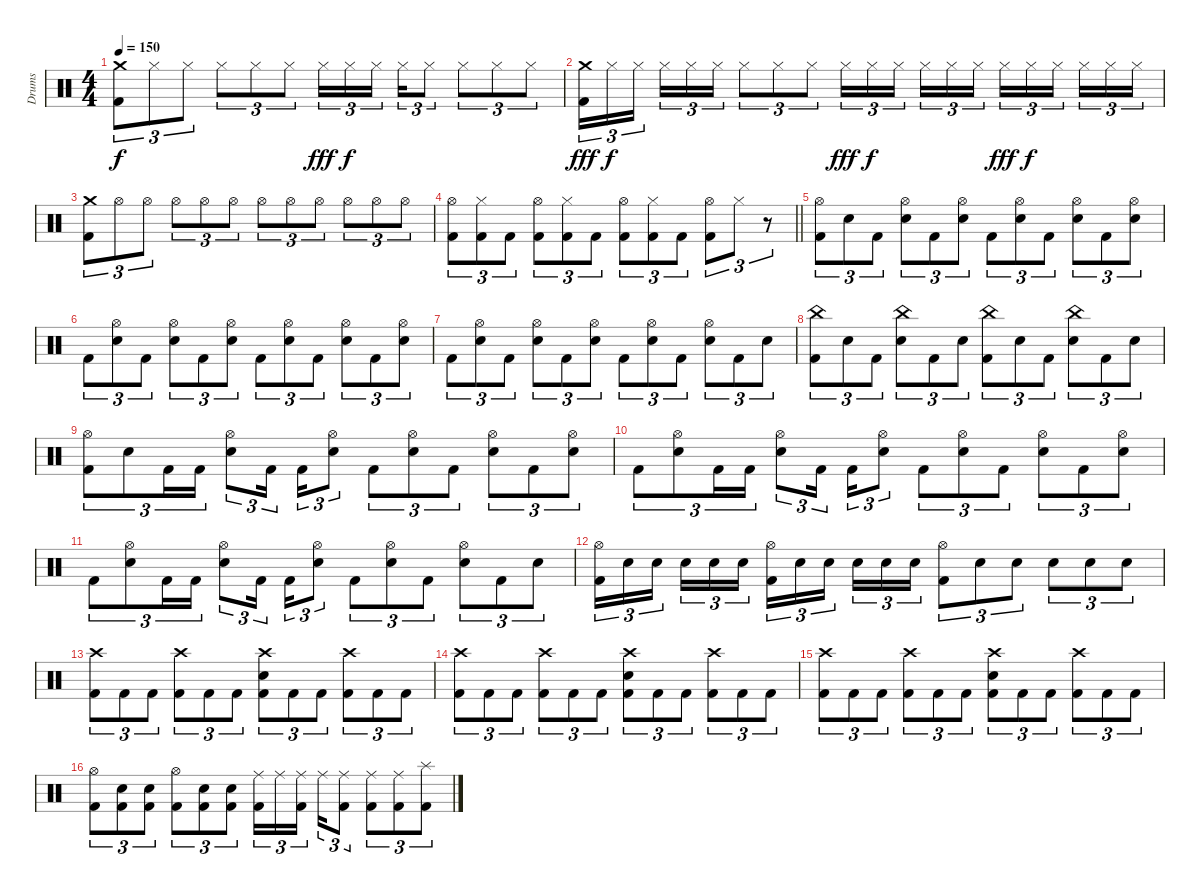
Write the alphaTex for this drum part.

\track ("Drums" "Drums") {instrument percussion}
\staff {score}
\articulation defaults
\ts (4 4)
\tempo 150
\clef neutral
\ks c
("Crash medium (hit)" "Kick (hit) 2").8{tu (3 2) dy f} "Hi-Hat (closed)".8{tu (3 2)} "Hi-Hat (closed)".8{tu (3 2)} "Hi-Hat (closed)".8{tu (3 2)} "Hi-Hat (closed)".8{tu (3 2)} "Hi-Hat (closed)".8{tu (3 2)} "Hi-Hat (closed)".16{tu (3 2) dy fff} "Hi-Hat (closed)".16{tu (3 2) dy f} "Hi-Hat (closed)".16{tu (3 2) beam splitsecondary} "Hi-Hat (closed)".16{tu (3 2)} "Hi-Hat (closed)".8{tu (3 2)} "Hi-Hat (closed)".8{tu (3 2)} "Hi-Hat (closed)".8{tu (3 2)} "Hi-Hat (closed)".8{tu (3 2)} |
("Crash medium (hit)" "Kick (hit) 2").16{tu (3 2) dy fff} "Hi-Hat (closed)".16{tu (3 2) dy f} "Hi-Hat (closed)".16{tu (3 2) beam splitsecondary} "Hi-Hat (closed)".16{tu (3 2)} "Hi-Hat (closed)".16{tu (3 2)} "Hi-Hat (closed)".16{tu (3 2)} "Hi-Hat (closed)".8{tu (3 2)} "Hi-Hat (closed)".8{tu (3 2)} "Hi-Hat (closed)".8{tu (3 2)} "Hi-Hat (closed)".16{tu (3 2) dy fff} "Hi-Hat (closed)".16{tu (3 2) dy f} "Hi-Hat (closed)".16{tu (3 2) beam splitsecondary} "Hi-Hat (closed)".16{tu (3 2)} "Hi-Hat (closed)".16{tu (3 2)} "Hi-Hat (closed)".16{tu (3 2)} "Hi-Hat (closed)".16{tu (3 2) dy fff} "Hi-Hat (closed)".16{tu (3 2) dy f} "Hi-Hat (closed)".16{tu (3 2) beam splitsecondary} "Hi-Hat (closed)".16{tu (3 2)} "Hi-Hat (closed)".16{tu (3 2)} "Hi-Hat (closed)".16{tu (3 2)} |
("Crash medium (hit)" "Kick (hit) 2").8{tu (3 2)} "Hi-Hat (open)".8{tu (3 2)} "Hi-Hat (open)".8{tu (3 2)} "Hi-Hat (open)".8{tu (3 2)} "Hi-Hat (open)".8{tu (3 2)} "Hi-Hat (open)".8{tu (3 2)} "Hi-Hat (open)".8{tu (3 2)} "Hi-Hat (open)".8{tu (3 2)} "Hi-Hat (open)".8{tu (3 2)} "Hi-Hat (open)".8{tu (3 2)} "Hi-Hat (open)".8{tu (3 2)} "Hi-Hat (open)".8{tu (3 2)} |
\barLineRight lightlight
("Hi-Hat (open)" "Kick (hit) 2").8{tu (3 2)} ("Hi-Hat (closed)" "Kick (hit) 2").8{tu (3 2)} "Kick (hit) 2".8{tu (3 2)} ("Hi-Hat (open)" "Kick (hit) 2").8{tu (3 2)} ("Hi-Hat (closed)" "Kick (hit) 2").8{tu (3 2)} "Kick (hit) 2".8{tu (3 2)} ("Hi-Hat (open)" "Kick (hit) 2").8{tu (3 2)} ("Hi-Hat (closed)" "Kick (hit) 2").8{tu (3 2)} "Kick (hit) 2".8{tu (3 2)} ("Hi-Hat (open)" "Kick (hit) 2").8{tu (3 2)} "Hi-Hat (closed)".8{tu (3 2)} r.8{tu (3 2)} |
("Hi-Hat (open)" "Kick (hit) 2").8{tu (3 2)} "Electric Snare (hit)".8{tu (3 2)} "Kick (hit) 2".8{tu (3 2)} ("Hi-Hat (open)" "Electric Snare (hit)").8{tu (3 2)} "Kick (hit) 2".8{tu (3 2)} ("Hi-Hat (open)" "Electric Snare (hit)").8{tu (3 2)} "Kick (hit) 2".8{tu (3 2)} ("Hi-Hat (open)" "Electric Snare (hit)").8{tu (3 2)} "Kick (hit) 2".8{tu (3 2)} ("Hi-Hat (open)" "Electric Snare (hit)").8{tu (3 2)} "Kick (hit) 2".8{tu (3 2)} ("Hi-Hat (open)" "Electric Snare (hit)").8{tu (3 2)} |
"Kick (hit) 2".8{tu (3 2)} ("Hi-Hat (open)" "Electric Snare (hit)").8{tu (3 2)} "Kick (hit) 2".8{tu (3 2)} ("Hi-Hat (open)" "Electric Snare (hit)").8{tu (3 2)} "Kick (hit) 2".8{tu (3 2)} ("Hi-Hat (open)" "Electric Snare (hit)").8{tu (3 2)} "Kick (hit) 2".8{tu (3 2)} ("Hi-Hat (open)" "Electric Snare (hit)").8{tu (3 2)} "Kick (hit) 2".8{tu (3 2)} ("Hi-Hat (open)" "Electric Snare (hit)").8{tu (3 2)} "Kick (hit) 2".8{tu (3 2)} ("Hi-Hat (open)" "Electric Snare (hit)").8{tu (3 2)} |
"Kick (hit) 2".8{tu (3 2)} ("Hi-Hat (open)" "Electric Snare (hit)").8{tu (3 2)} "Kick (hit) 2".8{tu (3 2)} ("Hi-Hat (open)" "Electric Snare (hit)").8{tu (3 2)} "Kick (hit) 2".8{tu (3 2)} ("Hi-Hat (open)" "Electric Snare (hit)").8{tu (3 2)} "Kick (hit) 2".8{tu (3 2)} ("Hi-Hat (open)" "Electric Snare (hit)").8{tu (3 2)} "Kick (hit) 2".8{tu (3 2)} ("Hi-Hat (open)" "Electric Snare (hit)").8{tu (3 2)} "Kick (hit) 2".8{tu (3 2)} "Electric Snare (hit)".8{tu (3 2)} |
("China (hit)" "Kick (hit) 2").8{tu (3 2)} "Electric Snare (hit)".8{tu (3 2)} "Kick (hit) 2".8{tu (3 2)} ("China (hit)" "Electric Snare (hit)").8{tu (3 2)} "Kick (hit) 2".8{tu (3 2)} "Electric Snare (hit)".8{tu (3 2)} ("China (hit)" "Kick (hit) 2").8{tu (3 2)} "Electric Snare (hit)".8{tu (3 2)} "Kick (hit) 2".8{tu (3 2)} ("China (hit)" "Electric Snare (hit)").8{tu (3 2)} "Kick (hit) 2".8{tu (3 2)} "Electric Snare (hit)".8{tu (3 2)} |
("Hi-Hat (open)" "Kick (hit) 2").8{tu (3 2)} "Electric Snare (hit)".8{tu (3 2)} "Kick (hit) 2".16{tu (3 2)} "Kick (hit) 2".16{tu (3 2)} ("Hi-Hat (open)" "Electric Snare (hit)").8{tu (3 2)} "Kick (hit) 2".16{tu (3 2) beam splitsecondary} "Kick (hit) 2".16{tu (3 2)} ("Hi-Hat (open)" "Electric Snare (hit)").8{tu (3 2)} "Kick (hit) 2".8{tu (3 2)} ("Hi-Hat (open)" "Electric Snare (hit)").8{tu (3 2)} "Kick (hit) 2".8{tu (3 2)} ("Hi-Hat (open)" "Electric Snare (hit)").8{tu (3 2)} "Kick (hit) 2".8{tu (3 2)} ("Hi-Hat (open)" "Electric Snare (hit)").8{tu (3 2)} |
"Kick (hit) 2".8{tu (3 2)} ("Hi-Hat (open)" "Electric Snare (hit)").8{tu (3 2)} "Kick (hit) 2".16{tu (3 2)} "Kick (hit) 2".16{tu (3 2)} ("Hi-Hat (open)" "Electric Snare (hit)").8{tu (3 2)} "Kick (hit) 2".16{tu (3 2) beam splitsecondary} "Kick (hit) 2".16{tu (3 2)} ("Hi-Hat (open)" "Electric Snare (hit)").8{tu (3 2)} "Kick (hit) 2".8{tu (3 2)} ("Hi-Hat (open)" "Electric Snare (hit)").8{tu (3 2)} "Kick (hit) 2".8{tu (3 2)} ("Hi-Hat (open)" "Electric Snare (hit)").8{tu (3 2)} "Kick (hit) 2".8{tu (3 2)} ("Hi-Hat (open)" "Electric Snare (hit)").8{tu (3 2)} |
"Kick (hit) 2".8{tu (3 2)} ("Hi-Hat (open)" "Electric Snare (hit)").8{tu (3 2)} "Kick (hit) 2".16{tu (3 2)} "Kick (hit) 2".16{tu (3 2)} ("Hi-Hat (open)" "Electric Snare (hit)").8{tu (3 2)} "Kick (hit) 2".16{tu (3 2) beam splitsecondary} "Kick (hit) 2".16{tu (3 2)} ("Hi-Hat (open)" "Electric Snare (hit)").8{tu (3 2)} "Kick (hit) 2".8{tu (3 2)} ("Hi-Hat (open)" "Electric Snare (hit)").8{tu (3 2)} "Kick (hit) 2".8{tu (3 2)} ("Hi-Hat (open)" "Electric Snare (hit)").8{tu (3 2)} "Kick (hit) 2".8{tu (3 2)} "Electric Snare (hit)".8{tu (3 2)} |
("Hi-Hat (open)" "Kick (hit) 2").16{tu (3 2)} "Electric Snare (hit)".16{tu (3 2)} "Electric Snare (hit)".16{tu (3 2) beam splitsecondary} "Electric Snare (hit)".16{tu (3 2)} "Electric Snare (hit)".16{tu (3 2)} "Electric Snare (hit)".16{tu (3 2)} ("Hi-Hat (open)" "Kick (hit) 2").16{tu (3 2)} "Electric Snare (hit)".16{tu (3 2)} "Electric Snare (hit)".16{tu (3 2) beam splitsecondary} "Electric Snare (hit)".16{tu (3 2)} "Electric Snare (hit)".16{tu (3 2)} "Electric Snare (hit)".16{tu (3 2)} ("Hi-Hat (open)" "Kick (hit) 2").8{tu (3 2)} "Electric Snare (hit)".8{tu (3 2)} "Electric Snare (hit)".8{tu (3 2)} "Electric Snare (hit)".8{tu (3 2)} "Electric Snare (hit)".8{tu (3 2)} "Electric Snare (hit)".8{tu (3 2)} |
("Crash high (hit)" "Kick (hit) 2").8{tu (3 2)} "Kick (hit) 2".8{tu (3 2)} "Kick (hit) 2".8{tu (3 2)} ("Crash high (hit)" "Kick (hit) 2").8{tu (3 2)} "Kick (hit) 2".8{tu (3 2)} "Kick (hit) 2".8{tu (3 2)} ("Crash high (hit)" "Electric Snare (hit)" "Kick (hit) 2").8{tu (3 2)} "Kick (hit) 2".8{tu (3 2)} "Kick (hit) 2".8{tu (3 2)} ("Crash high (hit)" "Kick (hit) 2").8{tu (3 2)} "Kick (hit) 2".8{tu (3 2)} "Kick (hit) 2".8{tu (3 2)} |
("Crash high (hit)" "Kick (hit) 2").8{tu (3 2)} "Kick (hit) 2".8{tu (3 2)} "Kick (hit) 2".8{tu (3 2)} ("Crash high (hit)" "Kick (hit) 2").8{tu (3 2)} "Kick (hit) 2".8{tu (3 2)} "Kick (hit) 2".8{tu (3 2)} ("Crash high (hit)" "Electric Snare (hit)" "Kick (hit) 2").8{tu (3 2)} "Kick (hit) 2".8{tu (3 2)} "Kick (hit) 2".8{tu (3 2)} ("Crash high (hit)" "Kick (hit) 2").8{tu (3 2)} "Kick (hit) 2".8{tu (3 2)} "Kick (hit) 2".8{tu (3 2)} |
("Crash high (hit)" "Kick (hit) 2").8{tu (3 2)} "Kick (hit) 2".8{tu (3 2)} "Kick (hit) 2".8{tu (3 2)} ("Crash high (hit)" "Kick (hit) 2").8{tu (3 2)} "Kick (hit) 2".8{tu (3 2)} "Kick (hit) 2".8{tu (3 2)} ("Crash high (hit)" "Electric Snare (hit)" "Kick (hit) 2").8{tu (3 2)} "Kick (hit) 2".8{tu (3 2)} "Kick (hit) 2".8{tu (3 2)} ("Crash high (hit)" "Kick (hit) 2").8{tu (3 2)} "Kick (hit) 2".8{tu (3 2)} "Kick (hit) 2".8{tu (3 2)} |
("Hi-Hat (open)" "Kick (hit) 2").8{tu (3 2)} ("Electric Snare (hit)" "Kick (hit) 2").8{tu (3 2)} ("Electric Snare (hit)" "Kick (hit) 2").8{tu (3 2)} ("Hi-Hat (open)" "Kick (hit) 2").8{tu (3 2)} ("Electric Snare (hit)" "Kick (hit) 2").8{tu (3 2)} ("Electric Snare (hit)" "Kick (hit) 2").8{tu (3 2)} ("Ride (middle)" "Kick (hit) 2").16{tu (3 2)} "Ride (middle)".16{tu (3 2)} ("Ride (middle)" "Kick (hit) 2").16{tu (3 2) beam splitsecondary} "Ride (middle)".16{tu (3 2)} ("Ride (middle)" "Kick (hit) 2").8{tu (3 2)} ("Ride (middle)" "Kick (hit) 2").8{tu (3 2)} ("Ride (middle)" "Kick (hit) 2").8{tu (3 2)} ("Splash (hit)" "Kick (hit) 2").8{tu (3 2)}
